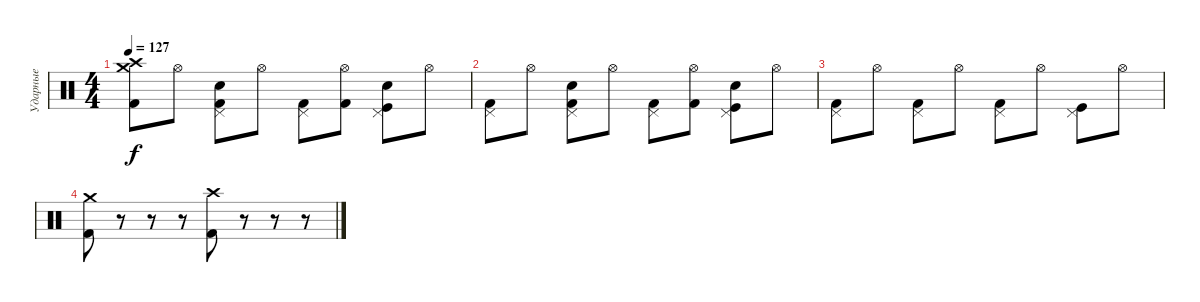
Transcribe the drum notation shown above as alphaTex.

\track ("Ударные" "Ударные") {instrument percussion}
\staff {score}
\articulation defaults
\ts (4 4)
\tempo 127
\clef neutral
\ks c
("Crash medium (hit)" "Crash high (hit)" "Kick (hit) 2").8{dy f} "Hi-Hat (open)".8 ("Pedal Hi-Hat (hit)" "Snare (hit) 2" "Kick (hit) 2").8 "Hi-Hat (open)".8 ("Pedal Hi-Hat (hit)" "Kick (hit) 2").8 ("Hi-Hat (open)" "Kick (hit) 2").8 ("Pedal Hi-Hat (hit)" "Snare (hit) 2" "Kick (hit)").8 "Hi-Hat (open)".8 |
("Pedal Hi-Hat (hit)" "Kick (hit) 2").8 "Hi-Hat (open)".8 ("Pedal Hi-Hat (hit)" "Snare (hit) 2" "Kick (hit) 2").8 "Hi-Hat (open)".8 ("Pedal Hi-Hat (hit)" "Kick (hit) 2").8 ("Hi-Hat (open)" "Kick (hit) 2").8 ("Pedal Hi-Hat (hit)" "Snare (hit) 2" "Kick (hit)").8 "Hi-Hat (open)".8 |
("Pedal Hi-Hat (hit)" "Kick (hit) 2").8 "Hi-Hat (open)".8 ("Pedal Hi-Hat (hit)" "Kick (hit) 2").8 "Hi-Hat (open)".8 ("Pedal Hi-Hat (hit)" "Kick (hit) 2").8 "Hi-Hat (open)".8 ("Pedal Hi-Hat (hit)" "Kick (hit)").8 "Hi-Hat (open)".8 |
("Crash medium (hit)" "Kick (hit) 2").8 r.8 r.8 r.8 ("Crash high (hit)" "Kick (hit) 2").8 r.8 r.8 r.8
